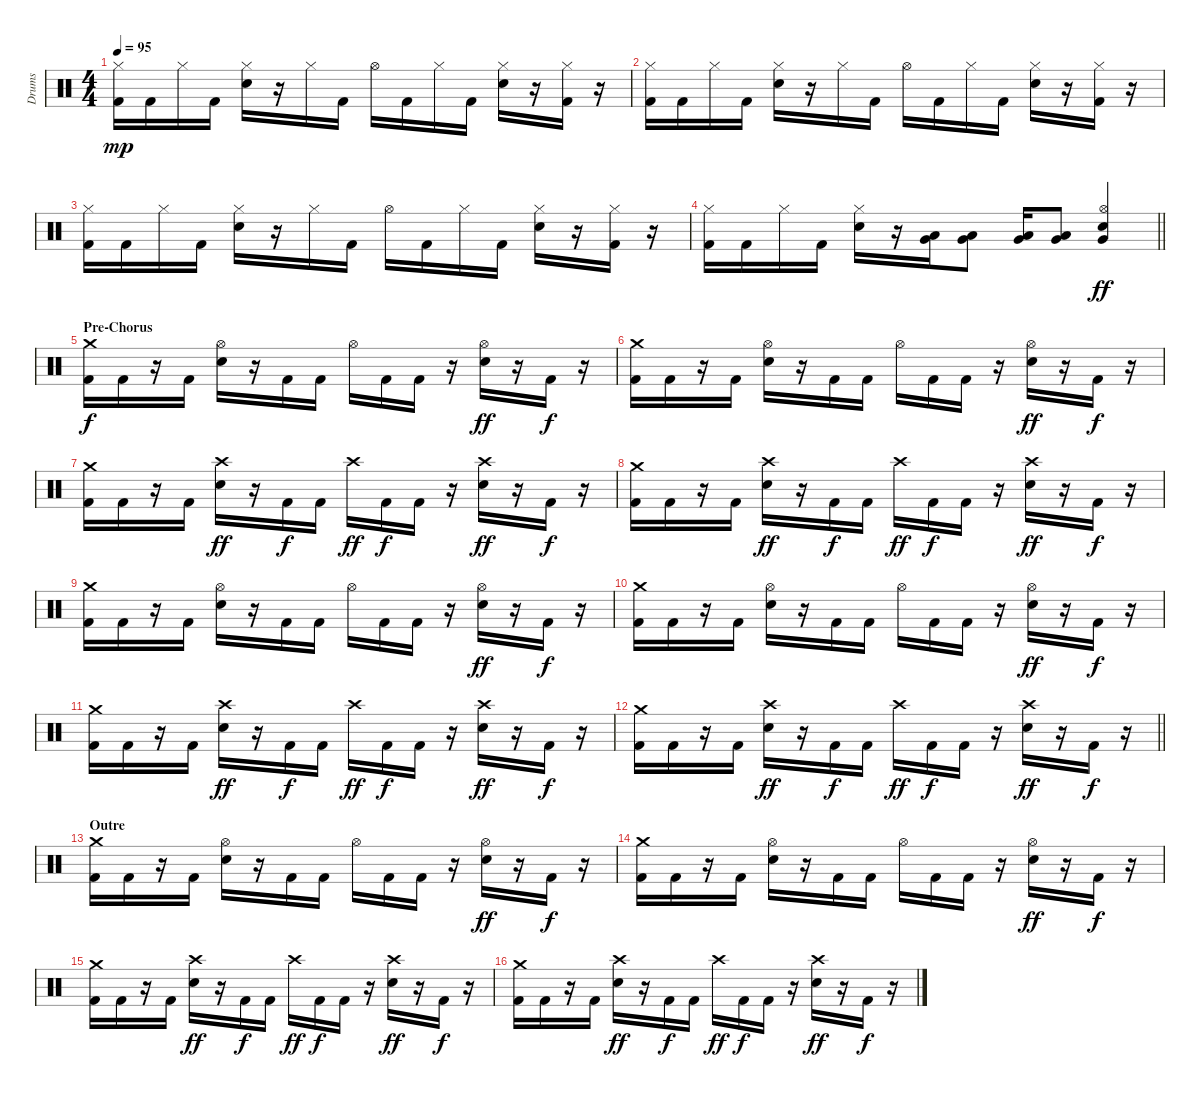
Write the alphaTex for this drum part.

\track ("Drums" "Drums") {instrument percussion}
\staff {score}
\articulation defaults
\ts (4 4)
\tempo 95
\clef neutral
\ks c
("Hi-Hat (closed)" "Kick (hit) 2").16{dy mp} "Kick (hit) 2".16 "Hi-Hat (closed)".16 "Kick (hit) 2".16 ("Hi-Hat (closed)" "Electric Snare (hit)").16 r.16 "Hi-Hat (closed)".16 "Kick (hit) 2".16 "Hi-Hat (open)".16 "Kick (hit) 2".16 "Hi-Hat (closed)".16 "Kick (hit) 2".16 ("Hi-Hat (closed)" "Electric Snare (hit)").16 r.16 ("Hi-Hat (closed)" "Kick (hit) 2").16 r.16 |
("Hi-Hat (closed)" "Kick (hit) 2").16 "Kick (hit) 2".16 "Hi-Hat (closed)".16 "Kick (hit) 2".16 ("Hi-Hat (closed)" "Electric Snare (hit)").16 r.16 "Hi-Hat (closed)".16 "Kick (hit) 2".16 "Hi-Hat (open)".16 "Kick (hit) 2".16 "Hi-Hat (closed)".16 "Kick (hit) 2".16 ("Hi-Hat (closed)" "Electric Snare (hit)").16 r.16 ("Hi-Hat (closed)" "Kick (hit) 2").16 r.16 |
("Hi-Hat (closed)" "Kick (hit) 2").16 "Kick (hit) 2".16 "Hi-Hat (closed)".16 "Kick (hit) 2".16 ("Hi-Hat (closed)" "Electric Snare (hit)").16 r.16 "Hi-Hat (closed)".16 "Kick (hit) 2".16 "Hi-Hat (open)".16 "Kick (hit) 2".16 "Hi-Hat (closed)".16 "Kick (hit) 2".16 ("Hi-Hat (closed)" "Electric Snare (hit)").16 r.16 ("Hi-Hat (closed)" "Kick (hit) 2").16 r.16 |
\barLineRight lightlight
("Hi-Hat (closed)" "Kick (hit) 2").16 "Kick (hit) 2".16 "Hi-Hat (closed)".16 "Kick (hit) 2".16 ("Hi-Hat (closed)" "Electric Snare (hit)").16 r.16 ("Low Tom (hit)" "Very Low Tom (hit)").16 ("Low Tom (hit)" "Very Low Tom (hit)").8 ("Low Tom (hit)" "Very Low Tom (hit)").16 ("Low Tom (hit)" "Very Low Tom (hit)").8 ("Hi-Hat (open)" "Very Low Tom (hit)" "Electric Snare (hit)").4{dy ff} |
\section ("" "Pre-Chorus")
("Crash medium (hit)" "Kick (hit) 2").16{dy f} "Kick (hit) 2".16 r.16 "Kick (hit) 2".16 ("Hi-Hat (open)" "Electric Snare (hit)").16 r.16 "Kick (hit) 2".16 "Kick (hit) 2".16 "Hi-Hat (open)".16 "Kick (hit) 2".16 "Kick (hit) 2".16 r.16 ("Hi-Hat (open)" "Electric Snare (hit)").16{dy ff} r.16 "Kick (hit) 2".16{dy f} r.16 |
("Crash medium (hit)" "Kick (hit) 2").16 "Kick (hit) 2".16 r.16 "Kick (hit) 2".16 ("Hi-Hat (open)" "Electric Snare (hit)").16 r.16 "Kick (hit) 2".16 "Kick (hit) 2".16 "Hi-Hat (open)".16 "Kick (hit) 2".16 "Kick (hit) 2".16 r.16 ("Hi-Hat (open)" "Electric Snare (hit)").16{dy ff} r.16 "Kick (hit) 2".16{dy f} r.16 |
("Crash medium (hit)" "Kick (hit) 2").16 "Kick (hit) 2".16 r.16 "Kick (hit) 2".16 ("Crash high (hit)" "Electric Snare (hit)").16{dy ff} r.16 "Kick (hit) 2".16{dy f} "Kick (hit) 2".16 "Crash high (hit)".16{dy ff} "Kick (hit) 2".16{dy f} "Kick (hit) 2".16 r.16 ("Crash high (hit)" "Electric Snare (hit)").16{dy ff} r.16 "Kick (hit) 2".16{dy f} r.16 |
("Crash medium (hit)" "Kick (hit) 2").16 "Kick (hit) 2".16 r.16 "Kick (hit) 2".16 ("Crash high (hit)" "Electric Snare (hit)").16{dy ff} r.16 "Kick (hit) 2".16{dy f} "Kick (hit) 2".16 "Crash high (hit)".16{dy ff} "Kick (hit) 2".16{dy f} "Kick (hit) 2".16 r.16 ("Crash high (hit)" "Electric Snare (hit)").16{dy ff} r.16 "Kick (hit) 2".16{dy f} r.16 |
("Crash medium (hit)" "Kick (hit) 2").16 "Kick (hit) 2".16 r.16 "Kick (hit) 2".16 ("Hi-Hat (open)" "Electric Snare (hit)").16 r.16 "Kick (hit) 2".16 "Kick (hit) 2".16 "Hi-Hat (open)".16 "Kick (hit) 2".16 "Kick (hit) 2".16 r.16 ("Hi-Hat (open)" "Electric Snare (hit)").16{dy ff} r.16 "Kick (hit) 2".16{dy f} r.16 |
("Crash medium (hit)" "Kick (hit) 2").16 "Kick (hit) 2".16 r.16 "Kick (hit) 2".16 ("Hi-Hat (open)" "Electric Snare (hit)").16 r.16 "Kick (hit) 2".16 "Kick (hit) 2".16 "Hi-Hat (open)".16 "Kick (hit) 2".16 "Kick (hit) 2".16 r.16 ("Hi-Hat (open)" "Electric Snare (hit)").16{dy ff} r.16 "Kick (hit) 2".16{dy f} r.16 |
("Crash medium (hit)" "Kick (hit) 2").16 "Kick (hit) 2".16 r.16 "Kick (hit) 2".16 ("Crash high (hit)" "Electric Snare (hit)").16{dy ff} r.16 "Kick (hit) 2".16{dy f} "Kick (hit) 2".16 "Crash high (hit)".16{dy ff} "Kick (hit) 2".16{dy f} "Kick (hit) 2".16 r.16 ("Crash high (hit)" "Electric Snare (hit)").16{dy ff} r.16 "Kick (hit) 2".16{dy f} r.16 |
\barLineRight lightlight
("Crash medium (hit)" "Kick (hit) 2").16 "Kick (hit) 2".16 r.16 "Kick (hit) 2".16 ("Crash high (hit)" "Electric Snare (hit)").16{dy ff} r.16 "Kick (hit) 2".16{dy f} "Kick (hit) 2".16 "Crash high (hit)".16{dy ff} "Kick (hit) 2".16{dy f} "Kick (hit) 2".16 r.16 ("Crash high (hit)" "Electric Snare (hit)").16{dy ff} r.16 "Kick (hit) 2".16{dy f} r.16 |
\section ("" "Outre")
("Crash medium (hit)" "Kick (hit) 2").16 "Kick (hit) 2".16 r.16 "Kick (hit) 2".16 ("Hi-Hat (open)" "Electric Snare (hit)").16 r.16 "Kick (hit) 2".16 "Kick (hit) 2".16 "Hi-Hat (open)".16 "Kick (hit) 2".16 "Kick (hit) 2".16 r.16 ("Hi-Hat (open)" "Electric Snare (hit)").16{dy ff} r.16 "Kick (hit) 2".16{dy f} r.16 |
("Crash medium (hit)" "Kick (hit) 2").16 "Kick (hit) 2".16 r.16 "Kick (hit) 2".16 ("Hi-Hat (open)" "Electric Snare (hit)").16 r.16 "Kick (hit) 2".16 "Kick (hit) 2".16 "Hi-Hat (open)".16 "Kick (hit) 2".16 "Kick (hit) 2".16 r.16 ("Hi-Hat (open)" "Electric Snare (hit)").16{dy ff} r.16 "Kick (hit) 2".16{dy f} r.16 |
("Crash medium (hit)" "Kick (hit) 2").16 "Kick (hit) 2".16 r.16 "Kick (hit) 2".16 ("Crash high (hit)" "Electric Snare (hit)").16{dy ff} r.16 "Kick (hit) 2".16{dy f} "Kick (hit) 2".16 "Crash high (hit)".16{dy ff} "Kick (hit) 2".16{dy f} "Kick (hit) 2".16 r.16 ("Crash high (hit)" "Electric Snare (hit)").16{dy ff} r.16 "Kick (hit) 2".16{dy f} r.16 |
("Crash medium (hit)" "Kick (hit) 2").16 "Kick (hit) 2".16 r.16 "Kick (hit) 2".16 ("Crash high (hit)" "Electric Snare (hit)").16{dy ff} r.16 "Kick (hit) 2".16{dy f} "Kick (hit) 2".16 "Crash high (hit)".16{dy ff} "Kick (hit) 2".16{dy f} "Kick (hit) 2".16 r.16 ("Crash high (hit)" "Electric Snare (hit)").16{dy ff} r.16 "Kick (hit) 2".16{dy f} r.16
